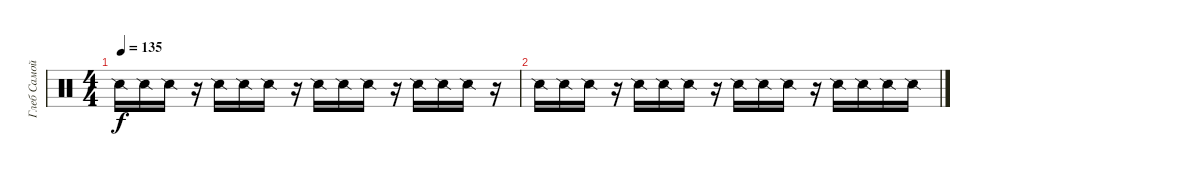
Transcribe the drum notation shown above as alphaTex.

\track ("Глеб Самойлов (fx)" "Глеб Самой") {instrument percussion}
\staff {score}
\articulation defaults
\ts (4 4)
\tempo 135
\clef neutral
\ks c "Snare (side stick) 2".16{dy f} "Snare (side stick) 2".16 "Snare (side stick) 2".16
r.16 "Snare (side stick) 2".16 "Snare (side stick) 2".16 "Snare (side stick) 2".16 r.16 "Snare (side stick) 2".16 "Snare (side stick) 2".16 "Snare (side stick) 2".16 r.16 "Snare (side stick) 2".16 "Snare (side stick) 2".16 "Snare (side stick) 2".16 r.16 |
"Snare (side stick) 2".16 "Snare (side stick) 2".16 "Snare (side stick) 2".16 r.16 "Snare (side stick) 2".16 "Snare (side stick) 2".16 "Snare (side stick) 2".16 r.16 "Snare (side stick) 2".16 "Snare (side stick) 2".16 "Snare (side stick) 2".16 r.16 "Snare (side stick) 2".16 "Snare (side stick) 2".16 "Snare (side stick) 2".16 "Snare (side stick) 2".16
